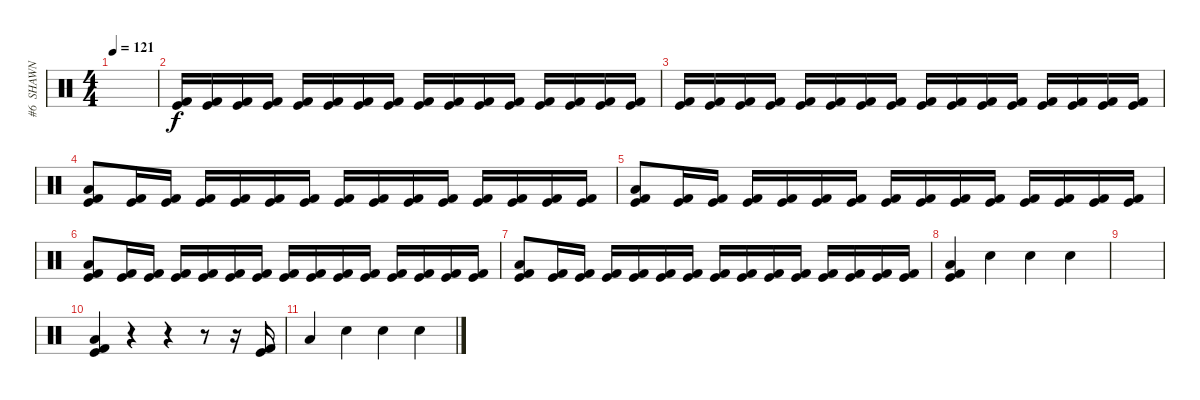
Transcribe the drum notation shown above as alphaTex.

\track ("#6  SHAWN \"CLOWN\" CRAHAN" "#6  SHAWN ") {instrument percussion}
\staff {score}
\articulation defaults
\ts (4 4)
\tempo 121
\clef neutral
\ks c
|
("Kick (hit) 2" "Kick (hit)").16 ("Kick (hit) 2" "Kick (hit)").16 ("Kick (hit) 2" "Kick (hit)").16 ("Kick (hit) 2" "Kick (hit)").16 ("Kick (hit) 2" "Kick (hit)").16 ("Kick (hit) 2" "Kick (hit)").16 ("Kick (hit) 2" "Kick (hit)").16 ("Kick (hit) 2" "Kick (hit)").16 ("Kick (hit) 2" "Kick (hit)").16 ("Kick (hit) 2" "Kick (hit)").16 ("Kick (hit) 2" "Kick (hit)").16 ("Kick (hit) 2" "Kick (hit)").16 ("Kick (hit) 2" "Kick (hit)").16 ("Kick (hit) 2" "Kick (hit)").16 ("Kick (hit) 2" "Kick (hit)").16 ("Kick (hit) 2" "Kick (hit)").16 |
("Kick (hit) 2" "Kick (hit)").16 ("Kick (hit) 2" "Kick (hit)").16 ("Kick (hit) 2" "Kick (hit)").16 ("Kick (hit) 2" "Kick (hit)").16 ("Kick (hit) 2" "Kick (hit)").16 ("Kick (hit) 2" "Kick (hit)").16 ("Kick (hit) 2" "Kick (hit)").16 ("Kick (hit) 2" "Kick (hit)").16 ("Kick (hit) 2" "Kick (hit)").16 ("Kick (hit) 2" "Kick (hit)").16 ("Kick (hit) 2" "Kick (hit)").16 ("Kick (hit) 2" "Kick (hit)").16 ("Kick (hit) 2" "Kick (hit)").16 ("Kick (hit) 2" "Kick (hit)").16 ("Kick (hit) 2" "Kick (hit)").16 ("Kick (hit) 2" "Kick (hit)").16 |
("Kick (hit) 2" "Low Floor Tom (hit)" "Kick (hit)").8 ("Kick (hit) 2" "Kick (hit)").16 ("Kick (hit) 2" "Kick (hit)").16 ("Kick (hit) 2" "Kick (hit)").16 ("Kick (hit) 2" "Kick (hit)").16 ("Kick (hit) 2" "Kick (hit)").16 ("Kick (hit) 2" "Kick (hit)").16 ("Kick (hit) 2" "Kick (hit)").16 ("Kick (hit) 2" "Kick (hit)").16 ("Kick (hit) 2" "Kick (hit)").16 ("Kick (hit) 2" "Kick (hit)").16 ("Kick (hit) 2" "Kick (hit)").16 ("Kick (hit) 2" "Kick (hit)").16 ("Kick (hit) 2" "Kick (hit)").16 ("Kick (hit) 2" "Kick (hit)").16 |
("Kick (hit) 2" "Low Floor Tom (hit)" "Kick (hit)").8 ("Kick (hit) 2" "Kick (hit)").16 ("Kick (hit) 2" "Kick (hit)").16 ("Kick (hit) 2" "Kick (hit)").16 ("Kick (hit) 2" "Kick (hit)").16 ("Kick (hit) 2" "Kick (hit)").16 ("Kick (hit) 2" "Kick (hit)").16 ("Kick (hit) 2" "Kick (hit)").16 ("Kick (hit) 2" "Kick (hit)").16 ("Kick (hit) 2" "Kick (hit)").16 ("Kick (hit) 2" "Kick (hit)").16 ("Kick (hit) 2" "Kick (hit)").16 ("Kick (hit) 2" "Kick (hit)").16 ("Kick (hit) 2" "Kick (hit)").16 ("Kick (hit) 2" "Kick (hit)").16 |
("Kick (hit) 2" "Low Floor Tom (hit)" "Kick (hit)").8 ("Kick (hit) 2" "Kick (hit)").16 ("Kick (hit) 2" "Kick (hit)").16 ("Kick (hit) 2" "Kick (hit)").16 ("Kick (hit) 2" "Kick (hit)").16 ("Kick (hit) 2" "Kick (hit)").16 ("Kick (hit) 2" "Kick (hit)").16 ("Kick (hit) 2" "Kick (hit)").16 ("Kick (hit) 2" "Kick (hit)").16 ("Kick (hit) 2" "Kick (hit)").16 ("Kick (hit) 2" "Kick (hit)").16 ("Kick (hit) 2" "Kick (hit)").16 ("Kick (hit) 2" "Kick (hit)").16 ("Kick (hit) 2" "Kick (hit)").16 ("Kick (hit) 2" "Kick (hit)").16 |
("Kick (hit) 2" "Low Floor Tom (hit)" "Kick (hit)").8 ("Kick (hit) 2" "Kick (hit)").16 ("Kick (hit) 2" "Kick (hit)").16 ("Kick (hit) 2" "Kick (hit)").16 ("Kick (hit) 2" "Kick (hit)").16 ("Kick (hit) 2" "Kick (hit)").16 ("Kick (hit) 2" "Kick (hit)").16 ("Kick (hit) 2" "Kick (hit)").16 ("Kick (hit) 2" "Kick (hit)").16 ("Kick (hit) 2" "Kick (hit)").16 ("Kick (hit) 2" "Kick (hit)").16 ("Kick (hit) 2" "Kick (hit)").16 ("Kick (hit) 2" "Kick (hit)").16 ("Kick (hit) 2" "Kick (hit)").16 ("Kick (hit) 2" "Kick (hit)").16 |
\section ("" "")
("Kick (hit) 2" "Low Floor Tom (hit)" "Kick (hit)").4 "Snare (hit)"{x}.4 "Snare (hit)"{x}.4 "Snare (hit)"{x}.4 |
|
("Kick (hit) 2" "Low Floor Tom (hit)" "Kick (hit)").4 r.4 r.4 r.8 r.16 ("Kick (hit) 2" "Kick (hit)").16 |
"Low Floor Tom (hit)".4 "Snare (hit)"{x}.4 "Snare (hit)"{x}.4 "Snare (hit)"{x}.4
